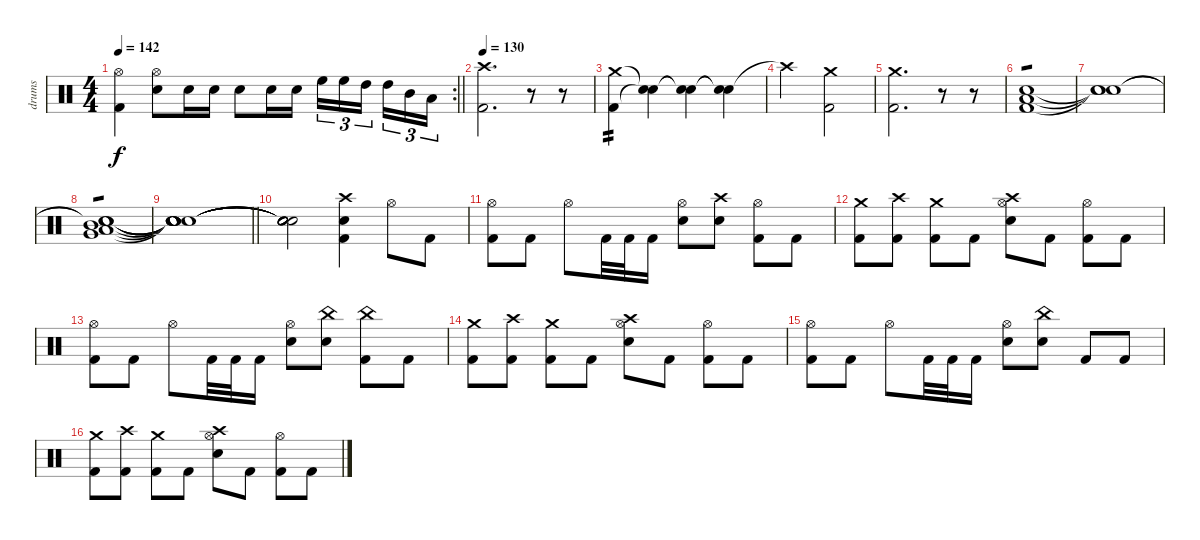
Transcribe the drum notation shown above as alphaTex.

\track ("drums" "drums") {instrument percussion}
\staff {score}
\articulation defaults
\rc 2
\ts (4 4)
\tempo 142
\clef neutral
\barLineRight lightlight
\ks c
("Hi-Hat (open)" "Kick (hit) 2").4{dy f} ("Hi-Hat (open)" "Snare (hit) 2").8 "Snare (hit) 2".16 "Snare (hit) 2".16 "Snare (hit) 2".8 "Snare (hit) 2".16 "Snare (hit) 2".16 "High Floor Tom (hit)".16{tu (3 2)} "High Floor Tom (hit)".16{tu (3 2)} "High Tom (hit)".16{tu (3 2) beam splitsecondary} "High Tom (hit)".16{tu (3 2)} "Mid Tom (hit)".16{tu (3 2)} "Low Tom (hit)".16{tu (3 2)} |
\section ("" "")
\tempo 130
("Crash high (hit)" "Kick (hit) 2").2{d} r.8 r.8{volume 0} |
("Crash medium (hit)" "Kick (hit) 2").4{tp 2 volume 13} ("Snare (hit)"{t} "Snare (hit)"{t}).4 ("Snare (hit)"{t} "Snare (hit)"{t}).4 ("Snare (hit)"{t} "Snare (hit)"{t}).4 |
"Crash high (hit)"{t}.2 ("Crash medium (hit)" "Kick (hit) 2").2 |
("Crash medium (hit)" "Kick (hit) 2").2{d} r.8 r.8{volume 0} |
("Low Floor Tom (hit)" "Snare (hit) 2" "Kick (hit) 2").1{tp 1 volume 13} |
("Snare (hit)"{t} "Snare (hit)"{t} "Snare (hit)"{t}).1 |
("Low Tom (hit)" "Snare (hit)"{t} "Snare (hit)"{t} "Snare (hit)" "Mid Tom (hit)" "Very Low Tom (hit)").1{tp 1} |
\barLineRight lightlight
("Snare (hit)"{t} "Snare (hit)"{t} "Snare (hit)"{t} "Snare (hit)"{t} "Snare (hit)"{t} "Snare (hit)"{t}).1 |
\section ("" "")
("Snare (hit)"{t} "Snare (hit)"{t} "Snare (hit)"{t} "Snare (hit)"{t} "Snare (hit)"{t} "Snare (hit)"{t}).2 ("Crash high (hit)" "Kick (hit) 2" "Snare (hit) 2").4 "Hi-Hat (open)".8 "Kick (hit) 2".8 |
("Hi-Hat (open)" "Kick (hit) 2").8 "Kick (hit) 2".8 "Hi-Hat (open)".8 "Kick (hit) 2".32 "Kick (hit) 2".32 "Kick (hit) 2".16 ("Hi-Hat (open)" "Snare (hit) 2").8 ("Crash high (hit)" "Snare (hit) 2").8 ("Hi-Hat (open)" "Kick (hit) 2").8 "Kick (hit) 2".8 |
("Crash medium (hit)" "Kick (hit) 2").8 ("Crash high (hit)" "Kick (hit) 2").8 ("Crash medium (hit)" "Kick (hit) 2").8 "Kick (hit) 2".8 ("Crash high (hit)" "Hi-Hat (open)" "Snare (hit) 2").8 "Kick (hit) 2".8 ("Hi-Hat (open)" "Kick (hit) 2").8 "Kick (hit) 2".8 |
("Hi-Hat (open)" "Kick (hit) 2").8 "Kick (hit) 2".8 "Hi-Hat (open)".8 "Kick (hit) 2".32 "Kick (hit) 2".32 "Kick (hit) 2".16 ("Hi-Hat (open)" "Snare (hit) 2").8 ("China (hit)" "Snare (hit) 2").8 ("China (hit)" "Kick (hit) 2").8 "Kick (hit) 2".8 |
("Crash medium (hit)" "Kick (hit) 2").8 ("Crash high (hit)" "Kick (hit) 2").8 ("Crash medium (hit)" "Kick (hit) 2").8 "Kick (hit) 2".8 ("Crash high (hit)" "Hi-Hat (open)" "Snare (hit) 2").8 "Kick (hit) 2".8 ("Hi-Hat (open)" "Kick (hit) 2").8 "Kick (hit) 2".8 |
("Hi-Hat (open)" "Kick (hit) 2").8 "Kick (hit) 2".8 "Hi-Hat (open)".8 "Kick (hit) 2".32 "Kick (hit) 2".32 "Kick (hit) 2".16 ("Hi-Hat (open)" "Snare (hit) 2").8 ("China (hit)" "Snare (hit) 2").8 "Kick (hit) 2".8 "Kick (hit) 2".8 |
("Crash medium (hit)" "Kick (hit) 2").8 ("Crash high (hit)" "Kick (hit) 2").8 ("Crash medium (hit)" "Kick (hit) 2").8 "Kick (hit) 2".8 ("Crash high (hit)" "Hi-Hat (open)" "Snare (hit) 2").8 "Kick (hit) 2".8 ("Hi-Hat (open)" "Kick (hit) 2").8 "Kick (hit) 2".8
